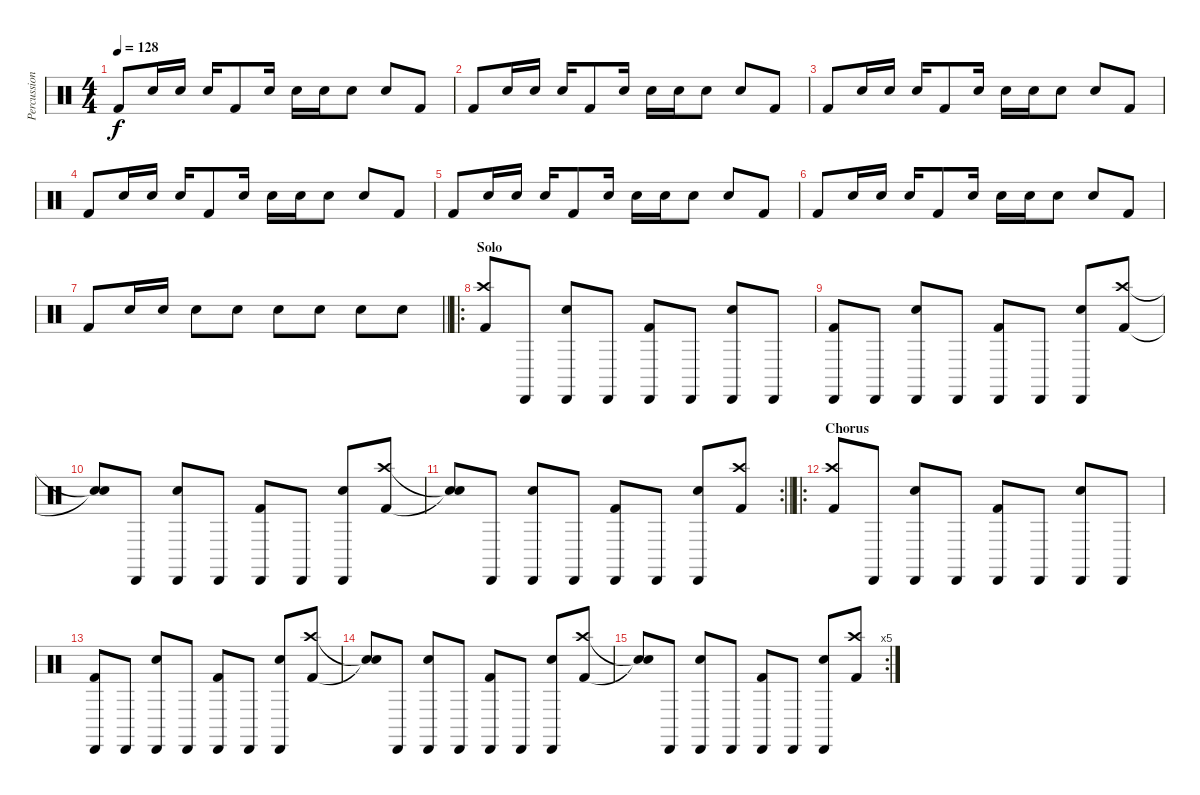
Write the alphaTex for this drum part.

\track ("Percussion" "Percussion") {instrument percussion}
\staff {score}
\articulation defaults
\ts (4 4)
\tempo 128
\clef neutral
\ks c "Kick (hit) 2".8{dy f} "Snare (hit) 2".16 "Snare (hit) 2".16 "Snare (hit) 2".16 "Kick (hit) 2".8 "Snare (hit) 2".16 "Snare (hit) 2".16 "Snare (hit) 2".16 "Snare (hit) 2".8 "Snare (hit) 2".8 "Kick (hit) 2".8
|
"Kick (hit) 2".8 "Snare (hit) 2".16 "Snare (hit) 2".16 "Snare (hit) 2".16 "Kick (hit) 2".8 "Snare (hit) 2".16 "Snare (hit) 2".16 "Snare (hit) 2".16 "Snare (hit) 2".8 "Snare (hit) 2".8 "Kick (hit) 2".8 |
"Kick (hit) 2".8 "Snare (hit) 2".16 "Snare (hit) 2".16 "Snare (hit) 2".16 "Kick (hit) 2".8 "Snare (hit) 2".16 "Snare (hit) 2".16 "Snare (hit) 2".16 "Snare (hit) 2".8 "Snare (hit) 2".8 "Kick (hit) 2".8 |
"Kick (hit) 2".8 "Snare (hit) 2".16 "Snare (hit) 2".16 "Snare (hit) 2".16 "Kick (hit) 2".8 "Snare (hit) 2".16 "Snare (hit) 2".16 "Snare (hit) 2".16 "Snare (hit) 2".8 "Snare (hit) 2".8 "Kick (hit) 2".8 |
"Kick (hit) 2".8 "Snare (hit) 2".16 "Snare (hit) 2".16 "Snare (hit) 2".16 "Kick (hit) 2".8 "Snare (hit) 2".16 "Snare (hit) 2".16 "Snare (hit) 2".16 "Snare (hit) 2".8 "Snare (hit) 2".8 "Kick (hit) 2".8 |
"Kick (hit) 2".8 "Snare (hit) 2".16 "Snare (hit) 2".16 "Snare (hit) 2".16 "Kick (hit) 2".8 "Snare (hit) 2".16 "Snare (hit) 2".16 "Snare (hit) 2".16 "Snare (hit) 2".8 "Snare (hit) 2".8 "Kick (hit) 2".8 |
\barLineRight lightlight "Kick (hit) 2".8 "Snare (hit) 2".16 "Snare (hit) 2".16 "Snare (hit) 2".8 "Snare (hit) 2".8 "Snare (hit) 2".8 "Snare (hit) 2".8 "Snare (hit) 2".8 "Snare (hit) 2".8
|
\ro
\section ("" "Solo")
("Kick (hit) 2" "Crash high (hit)").8 "Cabasa (hit)".8 ("Snare (hit) 2" "Cabasa (hit)").8 "Cabasa (hit)".8 ("Kick (hit) 2" "Cabasa (hit)").8 "Cabasa (hit)".8 ("Snare (hit) 2" "Cabasa (hit)").8 "Cabasa (hit)".8 |
("Kick (hit) 2" "Cabasa (hit)").8 "Cabasa (hit)".8 ("Snare (hit) 2" "Cabasa (hit)").8 "Cabasa (hit)".8 ("Kick (hit) 2" "Cabasa (hit)").8 "Cabasa (hit)".8 ("Snare (hit) 2" "Cabasa (hit)").8 ("Kick (hit) 2" "Crash high (hit)").8 |
("Snare (hit)"{t} "Snare (hit)"{t}).8 "Cabasa (hit)".8 ("Snare (hit) 2" "Cabasa (hit)").8 "Cabasa (hit)".8 ("Kick (hit) 2" "Cabasa (hit)").8 "Cabasa (hit)".8 ("Snare (hit) 2" "Cabasa (hit)").8 ("Kick (hit) 2" "Crash high (hit)").8 |
\rc 2
\barLineRight lightlight
("Snare (hit)"{t} "Snare (hit)"{t}).8 "Cabasa (hit)".8 ("Snare (hit) 2" "Cabasa (hit)").8 "Cabasa (hit)".8 ("Kick (hit) 2" "Cabasa (hit)").8 "Cabasa (hit)".8 ("Snare (hit) 2" "Cabasa (hit)").8 ("Kick (hit) 2" "Crash high (hit)").8 |
\ro
\section ("" "Chorus")
("Kick (hit) 2" "Crash high (hit)").8 "Cabasa (hit)".8 ("Snare (hit) 2" "Cabasa (hit)").8 "Cabasa (hit)".8 ("Kick (hit) 2" "Cabasa (hit)").8 "Cabasa (hit)".8 ("Snare (hit) 2" "Cabasa (hit)").8 "Cabasa (hit)".8 |
("Kick (hit) 2" "Cabasa (hit)").8 "Cabasa (hit)".8 ("Snare (hit) 2" "Cabasa (hit)").8 "Cabasa (hit)".8 ("Kick (hit) 2" "Cabasa (hit)").8 "Cabasa (hit)".8 ("Snare (hit) 2" "Cabasa (hit)").8 ("Kick (hit) 2" "Crash high (hit)").8 |
("Snare (hit)"{t} "Snare (hit)"{t}).8 "Cabasa (hit)".8 ("Snare (hit) 2" "Cabasa (hit)").8 "Cabasa (hit)".8 ("Kick (hit) 2" "Cabasa (hit)").8 "Cabasa (hit)".8 ("Snare (hit) 2" "Cabasa (hit)").8 ("Kick (hit) 2" "Crash high (hit)").8 |
\rc 5
("Snare (hit)"{t} "Snare (hit)"{t}).8 "Cabasa (hit)".8 ("Snare (hit) 2" "Cabasa (hit)").8 "Cabasa (hit)".8 ("Kick (hit) 2" "Cabasa (hit)").8 "Cabasa (hit)".8 ("Snare (hit) 2" "Cabasa (hit)").8 ("Kick (hit) 2" "Crash high (hit)").8
